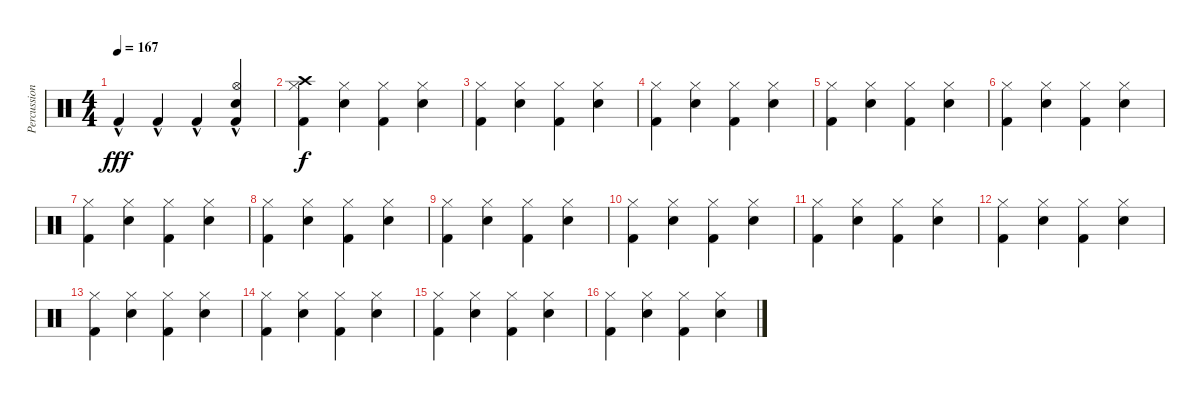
\track ("Percussion" "Percussion") {instrument percussion}
\staff {score}
\articulation defaults
\ts (4 4)
\tempo 167
\clef neutral
\ks c "Kick (hit) 2"{hac}.4{dy fff} "Kick (hit) 2"{hac}.4 "Kick (hit) 2"{hac}.4
("Kick (hit) 2"{hac} "Hi-Hat (open)" "Electric Snare (hit)").4 |
("Kick (hit) 2" "Hi-Hat (closed)" "Crash high (hit)").4{dy f} ("Hi-Hat (closed)" "Electric Snare (hit)").4 ("Kick (hit) 2" "Hi-Hat (closed)").4 ("Hi-Hat (closed)" "Electric Snare (hit)").4 |
("Kick (hit) 2" "Hi-Hat (closed)").4 ("Hi-Hat (closed)" "Electric Snare (hit)").4 ("Kick (hit) 2" "Hi-Hat (closed)").4 ("Hi-Hat (closed)" "Electric Snare (hit)").4 |
("Kick (hit) 2" "Hi-Hat (closed)").4 ("Hi-Hat (closed)" "Electric Snare (hit)").4 ("Kick (hit) 2" "Hi-Hat (closed)").4 ("Hi-Hat (closed)" "Electric Snare (hit)").4 |
("Kick (hit) 2" "Hi-Hat (closed)").4 ("Hi-Hat (closed)" "Electric Snare (hit)").4 ("Kick (hit) 2" "Hi-Hat (closed)").4 ("Hi-Hat (closed)" "Electric Snare (hit)").4 |
("Kick (hit) 2" "Hi-Hat (closed)").4 ("Hi-Hat (closed)" "Electric Snare (hit)").4 ("Kick (hit) 2" "Hi-Hat (closed)").4 ("Hi-Hat (closed)" "Electric Snare (hit)").4 |
("Kick (hit) 2" "Hi-Hat (closed)").4 ("Hi-Hat (closed)" "Electric Snare (hit)").4 ("Kick (hit) 2" "Hi-Hat (closed)").4 ("Hi-Hat (closed)" "Electric Snare (hit)").4 |
("Kick (hit) 2" "Hi-Hat (closed)").4 ("Hi-Hat (closed)" "Electric Snare (hit)").4 ("Kick (hit) 2" "Hi-Hat (closed)").4 ("Hi-Hat (closed)" "Electric Snare (hit)").4 |
("Kick (hit) 2" "Hi-Hat (closed)").4 ("Hi-Hat (closed)" "Electric Snare (hit)").4 ("Kick (hit) 2" "Hi-Hat (closed)").4 ("Hi-Hat (closed)" "Electric Snare (hit)").4 |
("Kick (hit) 2" "Hi-Hat (closed)").4 ("Hi-Hat (closed)" "Electric Snare (hit)").4 ("Kick (hit) 2" "Hi-Hat (closed)").4 ("Hi-Hat (closed)" "Electric Snare (hit)").4 |
("Kick (hit) 2" "Hi-Hat (closed)").4 ("Hi-Hat (closed)" "Electric Snare (hit)").4 ("Kick (hit) 2" "Hi-Hat (closed)").4 ("Hi-Hat (closed)" "Electric Snare (hit)").4 |
("Kick (hit) 2" "Hi-Hat (closed)").4 ("Hi-Hat (closed)" "Electric Snare (hit)").4 ("Kick (hit) 2" "Hi-Hat (closed)").4 ("Hi-Hat (closed)" "Electric Snare (hit)").4 |
("Kick (hit) 2" "Hi-Hat (closed)").4 ("Hi-Hat (closed)" "Electric Snare (hit)").4 ("Kick (hit) 2" "Hi-Hat (closed)").4 ("Hi-Hat (closed)" "Electric Snare (hit)").4 |
("Kick (hit) 2" "Hi-Hat (closed)").4 ("Hi-Hat (closed)" "Electric Snare (hit)").4 ("Kick (hit) 2" "Hi-Hat (closed)").4 ("Hi-Hat (closed)" "Electric Snare (hit)").4 |
("Kick (hit) 2" "Hi-Hat (closed)").4 ("Hi-Hat (closed)" "Electric Snare (hit)").4 ("Kick (hit) 2" "Hi-Hat (closed)").4 ("Hi-Hat (closed)" "Electric Snare (hit)").4 |
("Kick (hit) 2" "Hi-Hat (closed)").4 ("Hi-Hat (closed)" "Electric Snare (hit)").4 ("Kick (hit) 2" "Hi-Hat (closed)").4 ("Hi-Hat (closed)" "Electric Snare (hit)").4
